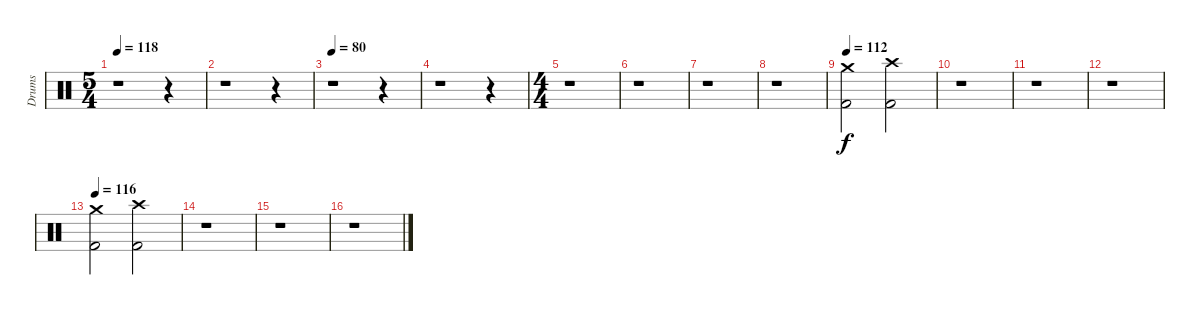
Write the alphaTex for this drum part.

\track ("Drums" "Drums") {instrument percussion}
\staff {score}
\articulation defaults
\ts (5 4)
\tempo 118
\tempo 60
\tempo 118
\clef neutral
\ks c
r.1{dy f} r.4 |
r.1 r.4 |
\tempo 80
r.1 r.4 |
r.1 r.4 |
\ts (4 4)
r.1 |
r.1 |
r.1 |
r.1 |
\tempo 112
("Kick (hit) 2" "Crash medium (hit)").2 ("Kick (hit) 2" "Crash high (hit)").2 |
r.1 |
r.1 |
r.1 |
\tempo 116
("Kick (hit) 2" "Crash medium (hit)").2 ("Kick (hit) 2" "Crash high (hit)").2 |
r.1 |
r.1 |
r.1
